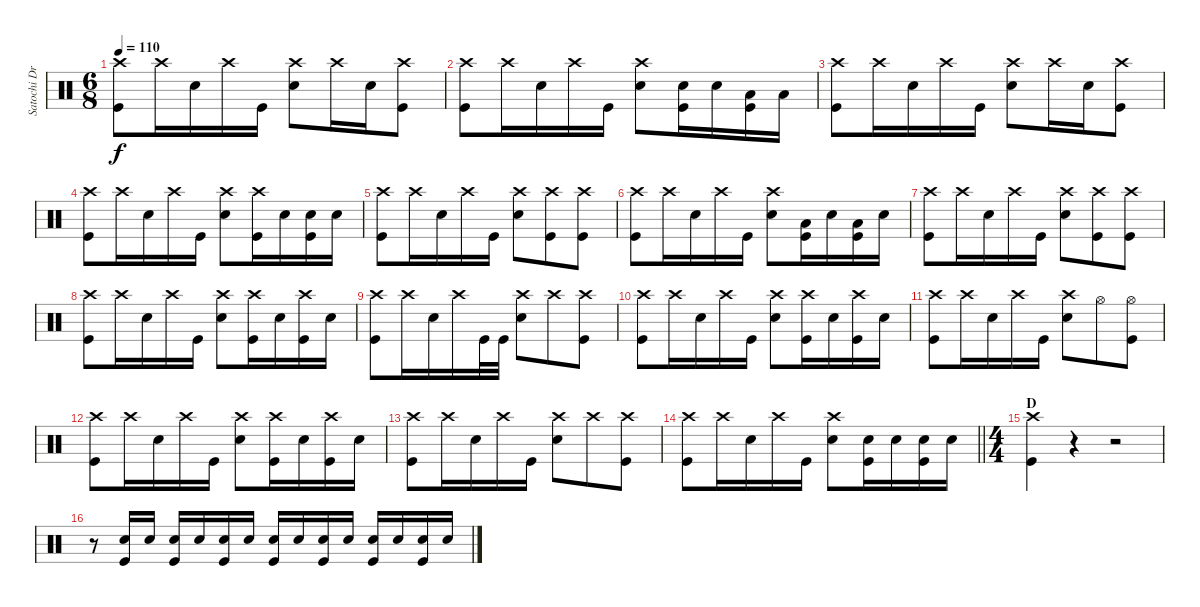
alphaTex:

\track ("Satochi Drums" "Satochi Dr") {instrument percussion}
\staff {score}
\articulation defaults
\ts (6 8)
\tempo 110
\clef neutral
\ks c
("Crash high (hit)" "Kick (hit)").8{dy f} "Crash high (hit)".16 "Electric Snare (hit)".16 "Crash high (hit)".16 "Kick (hit)".16 ("Crash high (hit)" "Electric Snare (hit)").8 "Crash high (hit)".16 "Electric Snare (hit)".16 ("Crash high (hit)" "Kick (hit)").8 |
("Crash high (hit)" "Kick (hit)").8 "Crash high (hit)".16 "Electric Snare (hit)".16 "Crash high (hit)".16 "Kick (hit)".16 ("Crash high (hit)" "Electric Snare (hit)").8 ("Electric Snare (hit)" "Kick (hit)").16 "Electric Snare (hit)".16 ("Low Tom (hit)" "Kick (hit)").16 "Low Tom (hit)".16 |
("Crash high (hit)" "Kick (hit)").8 "Crash high (hit)".16 "Electric Snare (hit)".16 "Crash high (hit)".16 "Kick (hit)".16 ("Crash high (hit)" "Electric Snare (hit)").8 "Crash high (hit)".16 "Electric Snare (hit)".16 ("Crash high (hit)" "Kick (hit)").8 |
("Crash high (hit)" "Kick (hit)").8 "Crash high (hit)".16 "Electric Snare (hit)".16 "Crash high (hit)".16 "Kick (hit)".16 ("Crash high (hit)" "Electric Snare (hit)").8 ("Crash high (hit)" "Kick (hit)").16 "Electric Snare (hit)".16 ("Electric Snare (hit)" "Kick (hit)").16 "Electric Snare (hit)".16 |
("Crash high (hit)" "Kick (hit)").8 "Crash high (hit)".16 "Electric Snare (hit)".16 "Crash high (hit)".16 "Kick (hit)".16 ("Crash high (hit)" "Electric Snare (hit)").8 ("Crash high (hit)" "Kick (hit)").8 ("Crash high (hit)" "Kick (hit)").8 |
("Crash high (hit)" "Kick (hit)").8 "Crash high (hit)".16 "Electric Snare (hit)".16 "Crash high (hit)".16 "Kick (hit)".16 ("Crash high (hit)" "Electric Snare (hit)").8 ("Low Floor Tom (hit)" "Kick (hit)").16 "Electric Snare (hit)".16 ("Low Floor Tom (hit)" "Kick (hit)").16 "Electric Snare (hit)".16 |
("Crash high (hit)" "Kick (hit)").8 "Crash high (hit)".16 "Electric Snare (hit)".16 "Crash high (hit)".16 "Kick (hit)".16 ("Crash high (hit)" "Electric Snare (hit)").8 ("Crash high (hit)" "Kick (hit)").8 ("Crash high (hit)" "Kick (hit)").8 |
("Crash high (hit)" "Kick (hit)").8 "Crash high (hit)".16 "Electric Snare (hit)".16 "Crash high (hit)".16 "Kick (hit)".16 ("Crash high (hit)" "Electric Snare (hit)").8 ("Crash high (hit)" "Kick (hit)").16 "Electric Snare (hit)".16 ("Crash high (hit)" "Kick (hit)").16 "Electric Snare (hit)".16 |
("Crash high (hit)" "Kick (hit)").8 "Crash high (hit)".16 "Electric Snare (hit)".16 "Crash high (hit)".16 "Kick (hit)".32 "Kick (hit)".32 ("Crash high (hit)" "Electric Snare (hit)").8 "Crash high (hit)".8 ("Crash high (hit)" "Kick (hit)").8 |
("Crash high (hit)" "Kick (hit)").8 "Crash high (hit)".16 "Electric Snare (hit)".16 "Crash high (hit)".16 "Kick (hit)".16 ("Crash high (hit)" "Electric Snare (hit)").8 ("Crash high (hit)" "Kick (hit)").16 "Electric Snare (hit)".16 ("Crash high (hit)" "Kick (hit)").16 "Electric Snare (hit)".16 |
("Crash high (hit)" "Kick (hit)").8 "Crash high (hit)".16 "Electric Snare (hit)".16 "Crash high (hit)".16 "Kick (hit)".16 ("Crash high (hit)" "Electric Snare (hit)").8 "Hi-Hat (open)".8 ("Hi-Hat (open)" "Kick (hit)").8 |
("Crash high (hit)" "Kick (hit)").8 "Crash high (hit)".16 "Electric Snare (hit)".16 "Crash high (hit)".16 "Kick (hit)".16 ("Crash high (hit)" "Electric Snare (hit)").8 ("Crash high (hit)" "Kick (hit)").16 "Electric Snare (hit)".16 ("Crash high (hit)" "Kick (hit)").16 "Electric Snare (hit)".16 |
("Crash high (hit)" "Kick (hit)").8 "Crash high (hit)".16 "Electric Snare (hit)".16 "Crash high (hit)".16 "Kick (hit)".16 ("Crash high (hit)" "Electric Snare (hit)").8 "Crash high (hit)".8 ("Crash high (hit)" "Kick (hit)").8 |
\barLineRight lightlight
("Crash high (hit)" "Kick (hit)").8 "Crash high (hit)".16 "Electric Snare (hit)".16 "Crash high (hit)".16 "Kick (hit)".16 ("Crash high (hit)" "Electric Snare (hit)").8 ("Electric Snare (hit)" "Kick (hit)").16 "Electric Snare (hit)".16 ("Electric Snare (hit)" "Kick (hit)").16 "Electric Snare (hit)".16 |
\ts (4 4)
\section ("" "D")
("Crash high (hit)" "Kick (hit)").4 r.4 r.2 |
r.8 ("Electric Snare (hit)" "Kick (hit)").16 "Electric Snare (hit)".16 ("Electric Snare (hit)" "Kick (hit)").16 "Electric Snare (hit)".16 ("Electric Snare (hit)" "Kick (hit)").16 "Electric Snare (hit)".16 ("Electric Snare (hit)" "Kick (hit)").16 "Electric Snare (hit)".16 ("Electric Snare (hit)" "Kick (hit)").16 "Electric Snare (hit)".16 ("Electric Snare (hit)" "Kick (hit)").16 "Electric Snare (hit)".16 ("Electric Snare (hit)" "Kick (hit)").16 "Electric Snare (hit)".16
